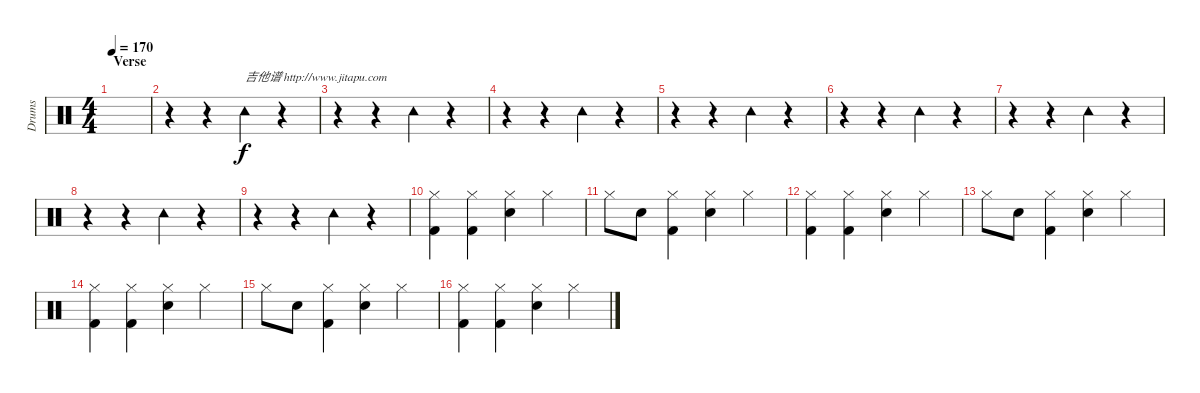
\track ("Drums" "Drums") {instrument percussion}
\staff {score}
\articulation defaults
\ts (4 4)
\section ("" "Verse")
\tempo 170
\clef neutral
\ks c
|
r.4 r.4 "Tambourine (hit)".4{txt "吉他谱 http://www.jitapu.com"} r.4 |
r.4 r.4 "Tambourine (hit)".4 r.4 |
r.4 r.4 "Tambourine (hit)".4 r.4 |
r.4 r.4 "Tambourine (hit)".4 r.4 |
r.4 r.4 "Tambourine (hit)".4 r.4 |
r.4 r.4 "Tambourine (hit)".4 r.4 |
r.4 r.4 "Tambourine (hit)".4 r.4 |
r.4 r.4 "Tambourine (hit)".4 r.4 |
("Hi-Hat (closed)" "Kick (hit) 2").4 ("Hi-Hat (closed)" "Kick (hit) 2").4 ("Hi-Hat (closed)" "Electric Snare (hit)").4 "Hi-Hat (closed)".4 |
"Hi-Hat (closed)".8 "Electric Snare (hit)".8 ("Hi-Hat (closed)" "Kick (hit) 2").4 ("Hi-Hat (closed)" "Electric Snare (hit)").4 "Hi-Hat (closed)".4 |
("Hi-Hat (closed)" "Kick (hit) 2").4 ("Hi-Hat (closed)" "Kick (hit) 2").4 ("Hi-Hat (closed)" "Electric Snare (hit)").4 "Hi-Hat (closed)".4 |
"Hi-Hat (closed)".8 "Electric Snare (hit)".8 ("Hi-Hat (closed)" "Kick (hit) 2").4 ("Hi-Hat (closed)" "Electric Snare (hit)").4 "Hi-Hat (closed)".4 |
("Hi-Hat (closed)" "Kick (hit) 2").4 ("Hi-Hat (closed)" "Kick (hit) 2").4 ("Hi-Hat (closed)" "Electric Snare (hit)").4 "Hi-Hat (closed)".4 |
"Hi-Hat (closed)".8 "Electric Snare (hit)".8 ("Hi-Hat (closed)" "Kick (hit) 2").4 ("Hi-Hat (closed)" "Electric Snare (hit)").4 "Hi-Hat (closed)".4 |
("Hi-Hat (closed)" "Kick (hit) 2").4 ("Hi-Hat (closed)" "Kick (hit) 2").4 ("Hi-Hat (closed)" "Electric Snare (hit)").4 "Hi-Hat (closed)".4
